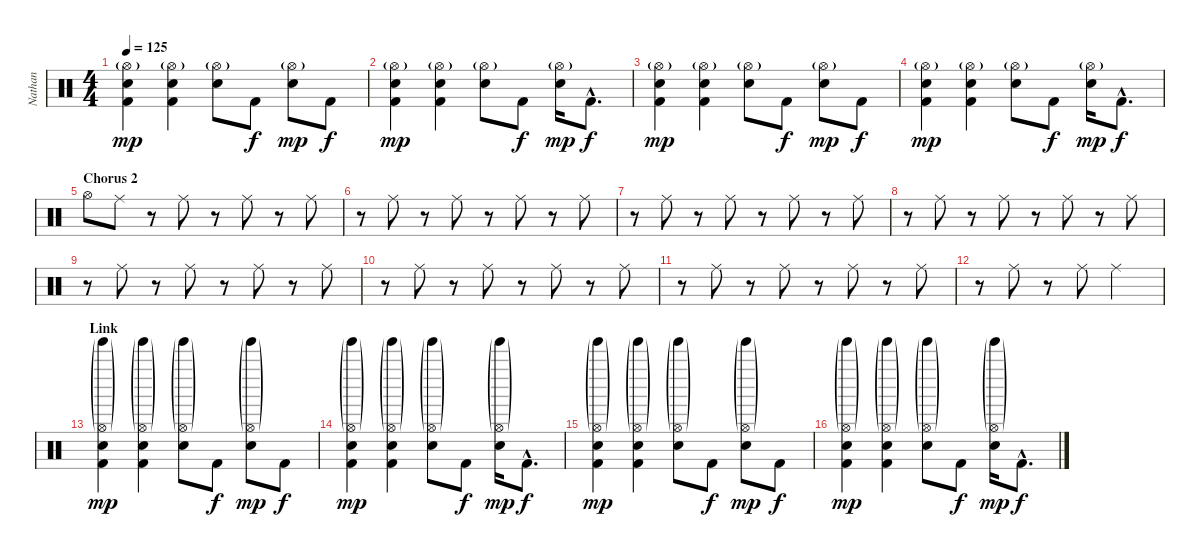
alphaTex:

\track ("Nathan" "Nathan") {instrument percussion}
\staff {score}
\articulation defaults
\ts (4 4)
\tempo 125
\clef neutral
\ks c
("Hi-Hat (open)"{g} "Electric Snare (hit)" "Kick (hit) 2").4{dy mp} ("Hi-Hat (open)"{g} "Electric Snare (hit)" "Kick (hit) 2").4 ("Hi-Hat (open)"{g} "Electric Snare (hit)").8 "Kick (hit) 2".8{dy f} ("Hi-Hat (open)"{g} "Electric Snare (hit)").8{dy mp} "Kick (hit) 2".8{dy f} |
("Hi-Hat (open)"{g} "Electric Snare (hit)" "Kick (hit) 2").4{dy mp} ("Hi-Hat (open)"{g} "Electric Snare (hit)" "Kick (hit) 2").4 ("Hi-Hat (open)"{g} "Electric Snare (hit)").8 "Kick (hit) 2".8{dy f} ("Hi-Hat (open)"{g} "Electric Snare (hit)").16{dy mp} "Kick (hit) 2"{hac}.8{d dy f} |
("Hi-Hat (open)"{g} "Electric Snare (hit)" "Kick (hit) 2").4{dy mp} ("Hi-Hat (open)"{g} "Electric Snare (hit)" "Kick (hit) 2").4 ("Hi-Hat (open)"{g} "Electric Snare (hit)").8 "Kick (hit) 2".8{dy f} ("Hi-Hat (open)"{g} "Electric Snare (hit)").8{dy mp} "Kick (hit) 2".8{dy f} |
("Hi-Hat (open)"{g} "Electric Snare (hit)" "Kick (hit) 2").4{dy mp} ("Hi-Hat (open)"{g} "Electric Snare (hit)" "Kick (hit) 2").4 ("Hi-Hat (open)"{g} "Electric Snare (hit)").8 "Kick (hit) 2".8{dy f} ("Hi-Hat (open)"{g} "Electric Snare (hit)").16{dy mp} "Kick (hit) 2"{hac}.8{d dy f} |
\section ("" "Chorus 2")
"Hi-Hat (open)".8 "Ride (middle)".8 r.8 "Ride (middle)".8 r.8 "Ride (middle)".8 r.8 "Ride (middle)".8 |
r.8 "Ride (middle)".8 r.8 "Ride (middle)".8 r.8 "Ride (middle)".8 r.8 "Ride (middle)".8 |
r.8 "Ride (middle)".8 r.8 "Ride (middle)".8 r.8 "Ride (middle)".8 r.8 "Ride (middle)".8 |
r.8 "Ride (middle)".8 r.8 "Ride (middle)".8 r.8 "Ride (middle)".8 r.8 "Ride (middle)".8 |
r.8 "Ride (middle)".8 r.8 "Ride (middle)".8 r.8 "Ride (middle)".8 r.8 "Ride (middle)".8 |
r.8 "Ride (middle)".8 r.8 "Ride (middle)".8 r.8 "Ride (middle)".8 r.8 "Ride (middle)".8 |
r.8 "Ride (middle)".8 r.8 "Ride (middle)".8 r.8 "Ride (middle)".8 r.8 "Ride (middle)".8 |
r.8 "Ride (middle)".8 r.8 "Ride (middle)".8 "Ride (middle)".2 |
\section ("" "Link")
("Hi-Hat (open)"{g} "Tinkle Bell (hit)"{g} "Electric Snare (hit)" "Kick (hit) 2").4{dy mp} ("Hi-Hat (open)"{g} "Tinkle Bell (hit)"{g} "Electric Snare (hit)" "Kick (hit) 2").4 ("Hi-Hat (open)"{g} "Tinkle Bell (hit)"{g} "Electric Snare (hit)").8 "Kick (hit) 2".8{dy f} ("Hi-Hat (open)"{g} "Tinkle Bell (hit)"{g} "Electric Snare (hit)").8{dy mp} "Kick (hit) 2".8{dy f} |
("Hi-Hat (open)"{g} "Tinkle Bell (hit)"{g} "Electric Snare (hit)" "Kick (hit) 2").4{dy mp} ("Hi-Hat (open)"{g} "Tinkle Bell (hit)"{g} "Electric Snare (hit)" "Kick (hit) 2").4 ("Hi-Hat (open)"{g} "Tinkle Bell (hit)"{g} "Electric Snare (hit)").8 "Kick (hit) 2".8{dy f} ("Hi-Hat (open)"{g} "Tinkle Bell (hit)"{g} "Electric Snare (hit)").16{dy mp} "Kick (hit) 2"{hac}.8{d dy f} |
("Hi-Hat (open)"{g} "Tinkle Bell (hit)"{g} "Electric Snare (hit)" "Kick (hit) 2").4{dy mp} ("Hi-Hat (open)"{g} "Tinkle Bell (hit)"{g} "Electric Snare (hit)" "Kick (hit) 2").4 ("Hi-Hat (open)"{g} "Tinkle Bell (hit)"{g} "Electric Snare (hit)").8 "Kick (hit) 2".8{dy f} ("Hi-Hat (open)"{g} "Tinkle Bell (hit)"{g} "Electric Snare (hit)").8{dy mp} "Kick (hit) 2".8{dy f} |
("Hi-Hat (open)"{g} "Tinkle Bell (hit)"{g} "Electric Snare (hit)" "Kick (hit) 2").4{dy mp} ("Hi-Hat (open)"{g} "Tinkle Bell (hit)"{g} "Electric Snare (hit)" "Kick (hit) 2").4 ("Hi-Hat (open)"{g} "Tinkle Bell (hit)"{g} "Electric Snare (hit)").8 "Kick (hit) 2".8{dy f} ("Hi-Hat (open)"{g} "Tinkle Bell (hit)"{g} "Electric Snare (hit)").16{dy mp} "Kick (hit) 2"{hac}.8{d dy f}
